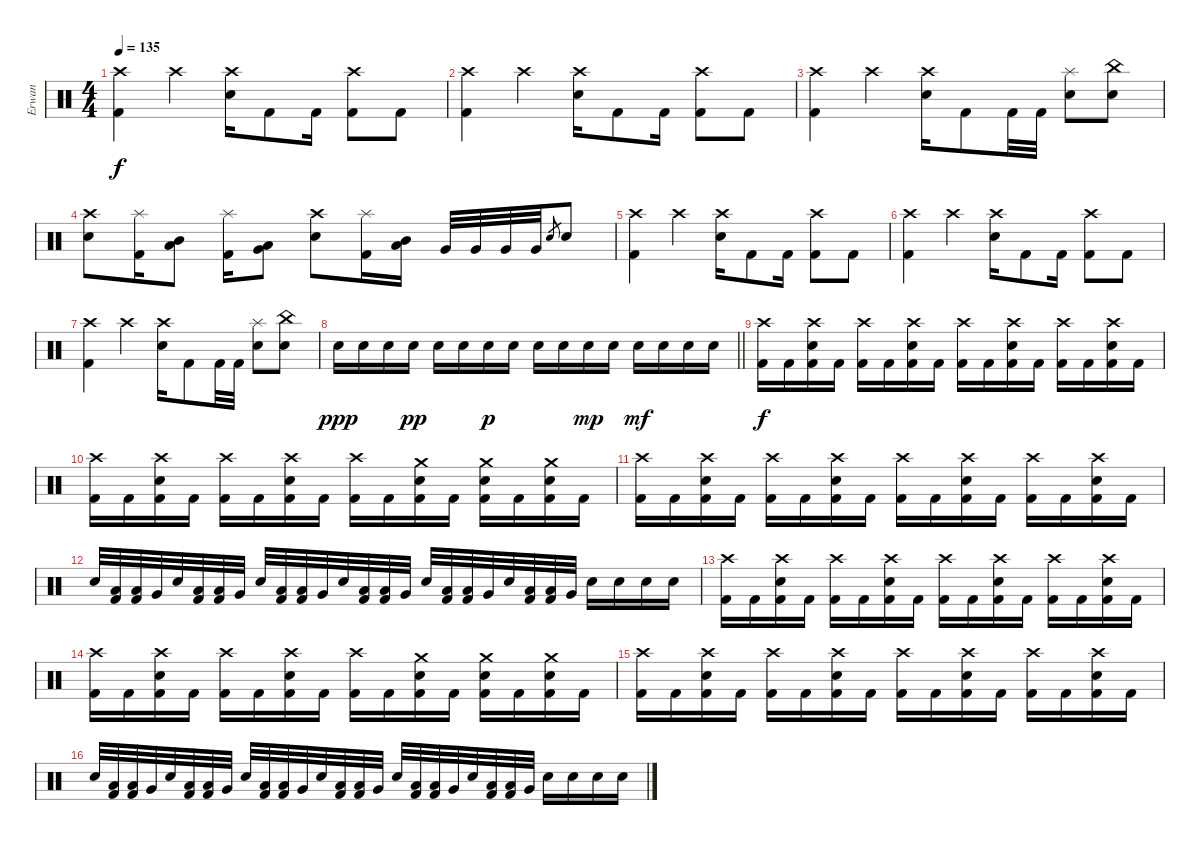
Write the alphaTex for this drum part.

\track ("Erwan" "Erwan") {instrument percussion}
\staff {score}
\articulation defaults
\ts (4 4)
\tempo 135
\clef neutral
\ks c
("Crash high (hit)" "Kick (hit) 2").4{dy f} "Crash high (hit)".4 ("Crash high (hit)" "Electric Snare (hit)").16 "Kick (hit) 2".8 "Kick (hit) 2".16 ("Crash high (hit)" "Kick (hit) 2").8 "Kick (hit) 2".8 |
("Crash high (hit)" "Kick (hit) 2").4 "Crash high (hit)".4 ("Crash high (hit)" "Electric Snare (hit)").16 "Kick (hit) 2".8 "Kick (hit) 2".16 ("Crash high (hit)" "Kick (hit) 2").8 "Kick (hit) 2".8 |
("Crash high (hit)" "Kick (hit) 2").4 "Crash high (hit)".4 ("Crash high (hit)" "Electric Snare (hit)").16 "Kick (hit) 2".8 "Kick (hit) 2".32 "Kick (hit) 2".32 ("Splash (hit)" "Electric Snare (hit)").8 ("China (hit)" "Electric Snare (hit)").8 |
("Crash high (hit)" "Electric Snare (hit)").8 ("Splash (hit)" "Kick (hit) 2").16 ("Mid Tom (hit)" "Low Tom (hit)").8 ("Splash (hit)" "Kick (hit) 2").16 ("Low Tom (hit)" "Very Low Tom (hit)").8 ("Crash high (hit)" "Electric Snare (hit)").8 ("Splash (hit)" "Kick (hit) 2").16 ("Mid Tom (hit)" "Low Tom (hit)").16 "Very Low Tom (hit)".32 "Very Low Tom (hit)".32 "Very Low Tom (hit)".32 "Very Low Tom (hit)".32 "Electric Snare (hit)".8{gr} "Electric Snare (hit)".8 |
("Crash high (hit)" "Kick (hit) 2").4 "Crash high (hit)".4 ("Crash high (hit)" "Electric Snare (hit)").16 "Kick (hit) 2".8 "Kick (hit) 2".16 ("Crash high (hit)" "Kick (hit) 2").8 "Kick (hit) 2".8 |
("Crash high (hit)" "Kick (hit) 2").4 "Crash high (hit)".4 ("Crash high (hit)" "Electric Snare (hit)").16 "Kick (hit) 2".8 "Kick (hit) 2".16 ("Crash high (hit)" "Kick (hit) 2").8 "Kick (hit) 2".8 |
("Crash high (hit)" "Kick (hit) 2").4 "Crash high (hit)".4 ("Crash high (hit)" "Electric Snare (hit)").16 "Kick (hit) 2".8 "Kick (hit) 2".32 "Kick (hit) 2".32 ("Splash (hit)" "Electric Snare (hit)").8 ("China (hit)" "Electric Snare (hit)").8 |
\barLineRight lightlight "Electric Snare (hit)".16{dy ppp} "Electric Snare (hit)".16 "Electric Snare (hit)".16 "Electric Snare (hit)".16{dy pp} "Electric Snare (hit)".16 "Electric Snare (hit)".16 "Electric Snare (hit)".16{dy p} "Electric Snare (hit)".16 "Electric Snare (hit)".16 "Electric Snare (hit)".16 "Electric Snare (hit)".16{dy mp} "Electric Snare (hit)".16 "Electric Snare (hit)".16{dy mf} "Electric Snare (hit)".16 "Electric Snare (hit)".16 "Electric Snare (hit)".16
|
("Crash high (hit)" "Kick (hit) 2").16{dy f} "Kick (hit) 2".16 ("Crash high (hit)" "Electric Snare (hit)" "Kick (hit) 2").16 "Kick (hit) 2".16 ("Crash high (hit)" "Kick (hit) 2").16 "Kick (hit) 2".16 ("Crash high (hit)" "Electric Snare (hit)" "Kick (hit) 2").16 "Kick (hit) 2".16 ("Crash high (hit)" "Kick (hit) 2").16 "Kick (hit) 2".16 ("Crash high (hit)" "Electric Snare (hit)" "Kick (hit) 2").16 "Kick (hit) 2".16 ("Crash high (hit)" "Kick (hit) 2").16 "Kick (hit) 2".16 ("Crash high (hit)" "Electric Snare (hit)" "Kick (hit) 2").16 "Kick (hit) 2".16 |
("Crash high (hit)" "Kick (hit) 2").16 "Kick (hit) 2".16 ("Crash high (hit)" "Electric Snare (hit)" "Kick (hit) 2").16 "Kick (hit) 2".16 ("Crash high (hit)" "Kick (hit) 2").16 "Kick (hit) 2".16 ("Crash high (hit)" "Electric Snare (hit)" "Kick (hit) 2").16 "Kick (hit) 2".16 ("Crash high (hit)" "Kick (hit) 2").16 "Kick (hit) 2".16 ("Crash medium (hit)" "Electric Snare (hit)" "Kick (hit) 2").16 "Kick (hit) 2".16 ("Crash medium (hit)" "Electric Snare (hit)" "Kick (hit) 2").16 "Kick (hit) 2".16 ("Crash medium (hit)" "Electric Snare (hit)" "Kick (hit) 2").16 "Kick (hit) 2".16 |
("Crash high (hit)" "Kick (hit) 2").16 "Kick (hit) 2".16 ("Crash high (hit)" "Electric Snare (hit)" "Kick (hit) 2").16 "Kick (hit) 2".16 ("Crash high (hit)" "Kick (hit) 2").16 "Kick (hit) 2".16 ("Crash high (hit)" "Electric Snare (hit)" "Kick (hit) 2").16 "Kick (hit) 2".16 ("Crash high (hit)" "Kick (hit) 2").16 "Kick (hit) 2".16 ("Crash high (hit)" "Electric Snare (hit)" "Kick (hit) 2").16 "Kick (hit) 2".16 ("Crash high (hit)" "Kick (hit) 2").16 "Kick (hit) 2".16 ("Crash high (hit)" "Electric Snare (hit)" "Kick (hit) 2").16 "Kick (hit) 2".16 |
"Electric Snare (hit)".32 ("Low Tom (hit)" "Kick (hit) 2").32 ("Low Tom (hit)" "Kick (hit) 2").32 "Very Low Tom (hit)".32 "Electric Snare (hit)".32 ("Low Tom (hit)" "Kick (hit) 2").32 ("Low Tom (hit)" "Kick (hit) 2").32 "Very Low Tom (hit)".32 "Electric Snare (hit)".32 ("Low Tom (hit)" "Kick (hit) 2").32 ("Low Tom (hit)" "Kick (hit) 2").32 "Very Low Tom (hit)".32 "Electric Snare (hit)".32 ("Low Tom (hit)" "Kick (hit) 2").32 ("Low Tom (hit)" "Kick (hit) 2").32 "Very Low Tom (hit)".32 "Electric Snare (hit)".32 ("Low Tom (hit)" "Kick (hit) 2").32 ("Low Tom (hit)" "Kick (hit) 2").32 "Very Low Tom (hit)".32 "Electric Snare (hit)".32 ("Low Tom (hit)" "Kick (hit) 2").32 ("Low Tom (hit)" "Kick (hit) 2").32 "Very Low Tom (hit)".32 "Electric Snare (hit)".16 "Electric Snare (hit)".16 "Electric Snare (hit)".16 "Electric Snare (hit)".16 |
("Crash high (hit)" "Kick (hit) 2").16 "Kick (hit) 2".16 ("Crash high (hit)" "Electric Snare (hit)" "Kick (hit) 2").16 "Kick (hit) 2".16 ("Crash high (hit)" "Kick (hit) 2").16 "Kick (hit) 2".16 ("Crash high (hit)" "Electric Snare (hit)" "Kick (hit) 2").16 "Kick (hit) 2".16 ("Crash high (hit)" "Kick (hit) 2").16 "Kick (hit) 2".16 ("Crash high (hit)" "Electric Snare (hit)" "Kick (hit) 2").16 "Kick (hit) 2".16 ("Crash high (hit)" "Kick (hit) 2").16 "Kick (hit) 2".16 ("Crash high (hit)" "Electric Snare (hit)" "Kick (hit) 2").16 "Kick (hit) 2".16 |
("Crash high (hit)" "Kick (hit) 2").16 "Kick (hit) 2".16 ("Crash high (hit)" "Electric Snare (hit)" "Kick (hit) 2").16 "Kick (hit) 2".16 ("Crash high (hit)" "Kick (hit) 2").16 "Kick (hit) 2".16 ("Crash high (hit)" "Electric Snare (hit)" "Kick (hit) 2").16 "Kick (hit) 2".16 ("Crash high (hit)" "Kick (hit) 2").16 "Kick (hit) 2".16 ("Crash medium (hit)" "Electric Snare (hit)" "Kick (hit) 2").16 "Kick (hit) 2".16 ("Crash medium (hit)" "Electric Snare (hit)" "Kick (hit) 2").16 "Kick (hit) 2".16 ("Crash medium (hit)" "Electric Snare (hit)" "Kick (hit) 2").16 "Kick (hit) 2".16 |
("Crash high (hit)" "Kick (hit) 2").16 "Kick (hit) 2".16 ("Crash high (hit)" "Electric Snare (hit)" "Kick (hit) 2").16 "Kick (hit) 2".16 ("Crash high (hit)" "Kick (hit) 2").16 "Kick (hit) 2".16 ("Crash high (hit)" "Electric Snare (hit)" "Kick (hit) 2").16 "Kick (hit) 2".16 ("Crash high (hit)" "Kick (hit) 2").16 "Kick (hit) 2".16 ("Crash high (hit)" "Electric Snare (hit)" "Kick (hit) 2").16 "Kick (hit) 2".16 ("Crash high (hit)" "Kick (hit) 2").16 "Kick (hit) 2".16 ("Crash high (hit)" "Electric Snare (hit)" "Kick (hit) 2").16 "Kick (hit) 2".16 |
"Electric Snare (hit)".32{volume 0} ("Low Tom (hit)" "Kick (hit) 2").32 ("Low Tom (hit)" "Kick (hit) 2").32 "Very Low Tom (hit)".32 "Electric Snare (hit)".32 ("Low Tom (hit)" "Kick (hit) 2").32 ("Low Tom (hit)" "Kick (hit) 2").32 "Very Low Tom (hit)".32 "Electric Snare (hit)".32 ("Low Tom (hit)" "Kick (hit) 2").32 ("Low Tom (hit)" "Kick (hit) 2").32 "Very Low Tom (hit)".32 "Electric Snare (hit)".32 ("Low Tom (hit)" "Kick (hit) 2").32 ("Low Tom (hit)" "Kick (hit) 2").32 "Very Low Tom (hit)".32 "Electric Snare (hit)".32 ("Low Tom (hit)" "Kick (hit) 2").32 ("Low Tom (hit)" "Kick (hit) 2").32 "Very Low Tom (hit)".32 "Electric Snare (hit)".32 ("Low Tom (hit)" "Kick (hit) 2").32 ("Low Tom (hit)" "Kick (hit) 2").32 "Very Low Tom (hit)".32 "Electric Snare (hit)".16 "Electric Snare (hit)".16 "Electric Snare (hit)".16 "Electric Snare (hit)".16
